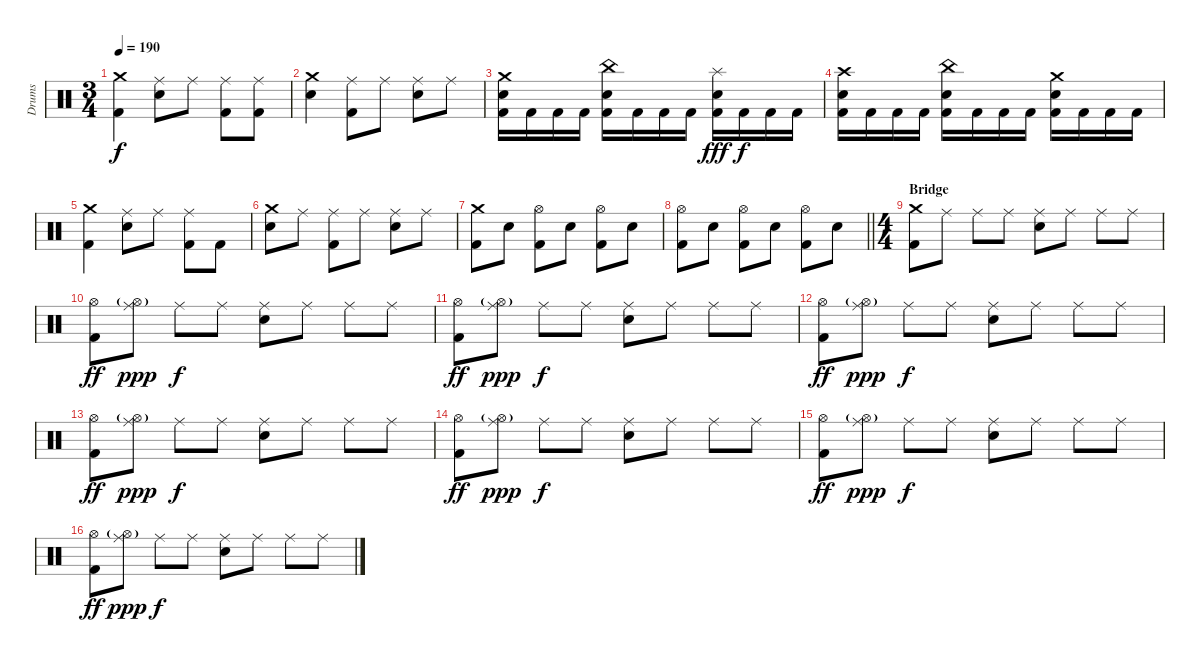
\track ("Drums" "Drums") {instrument percussion}
\staff {score}
\articulation defaults
\ts (3 4)
\tempo 190
\clef neutral
\ks c
("Crash medium (hit)" "Kick (hit) 2").4{dy f} ("Ride (middle)" "Electric Snare (hit)").8 "Ride (middle)".8 ("Ride (middle)" "Kick (hit) 2").8 ("Ride (middle)" "Kick (hit) 2").8 |
("Crash medium (hit)" "Electric Snare (hit)").4 ("Ride (middle)" "Kick (hit) 2").8 "Ride (middle)".8 ("Ride (middle)" "Electric Snare (hit)").8 "Ride (middle)".8 |
("Crash medium (hit)" "Electric Snare (hit)" "Kick (hit) 2").16 "Kick (hit) 2".16 "Kick (hit) 2".16 "Kick (hit) 2".16 ("China (hit)" "Electric Snare (hit)" "Kick (hit) 2").16 "Kick (hit) 2".16 "Kick (hit) 2".16 "Kick (hit) 2".16 ("Splash (hit)" "Electric Snare (hit)" "Kick (hit) 2").16{dy fff} "Kick (hit) 2".16{dy f} "Kick (hit) 2".16 "Kick (hit) 2".16 |
("Crash high (hit)" "Electric Snare (hit)" "Kick (hit) 2").16 "Kick (hit) 2".16 "Kick (hit) 2".16 "Kick (hit) 2".16 ("China (hit)" "Electric Snare (hit)" "Kick (hit) 2").16 "Kick (hit) 2".16 "Kick (hit) 2".16 "Kick (hit) 2".16 ("Crash medium (hit)" "Electric Snare (hit)" "Kick (hit) 2").16 "Kick (hit) 2".16 "Kick (hit) 2".16 "Kick (hit) 2".16 |
("Crash medium (hit)" "Kick (hit) 2").4 ("Ride (middle)" "Electric Snare (hit)").8 "Ride (middle)".8 ("Ride (middle)" "Kick (hit) 2").8 "Kick (hit) 2".8 |
("Crash medium (hit)" "Electric Snare (hit)").8 "Ride (middle)".8 ("Ride (middle)" "Kick (hit) 2").8 "Ride (middle)".8 ("Ride (middle)" "Electric Snare (hit)").8 "Ride (middle)".8 |
("Crash medium (hit)" "Kick (hit) 2").8 "Electric Snare (hit)".8 ("Hi-Hat (open)" "Kick (hit) 2").8 "Electric Snare (hit)".8 ("Hi-Hat (open)" "Kick (hit) 2").8 "Electric Snare (hit)".8 |
\barLineRight lightlight
("Hi-Hat (open)" "Kick (hit) 2").8 "Electric Snare (hit)".8 ("Hi-Hat (open)" "Kick (hit) 2").8 "Electric Snare (hit)".8 ("Hi-Hat (open)" "Kick (hit) 2").8 "Electric Snare (hit)".8 |
\ts (4 4)
\section ("" "Bridge")
("Crash medium (hit)" "Kick (hit) 2").8 "Ride (middle)".8 "Ride (middle)".8 "Ride (middle)".8 ("Ride (middle)" "Electric Snare (hit)").8 "Ride (middle)".8 "Ride (middle)".8 "Ride (middle)".8 |
("Hi-Hat (open)" "Kick (hit) 2").8{dy ff} ("Hi-Hat (open)"{g} "Ride (middle)").8{dy ppp} "Ride (middle)".8{dy f} "Ride (middle)".8 ("Ride (middle)" "Electric Snare (hit)").8 "Ride (middle)".8 "Ride (middle)".8 "Ride (middle)".8 |
("Hi-Hat (open)" "Kick (hit) 2").8{dy ff} ("Hi-Hat (open)"{g} "Ride (middle)").8{dy ppp} "Ride (middle)".8{dy f} "Ride (middle)".8 ("Ride (middle)" "Electric Snare (hit)").8 "Ride (middle)".8 "Ride (middle)".8 "Ride (middle)".8 |
("Hi-Hat (open)" "Kick (hit) 2").8{dy ff} ("Hi-Hat (open)"{g} "Ride (middle)").8{dy ppp} "Ride (middle)".8{dy f} "Ride (middle)".8 ("Ride (middle)" "Electric Snare (hit)").8 "Ride (middle)".8 "Ride (middle)".8 "Ride (middle)".8 |
("Hi-Hat (open)" "Kick (hit) 2").8{dy ff} ("Hi-Hat (open)"{g} "Ride (middle)").8{dy ppp} "Ride (middle)".8{dy f} "Ride (middle)".8 ("Ride (middle)" "Electric Snare (hit)").8 "Ride (middle)".8 "Ride (middle)".8 "Ride (middle)".8 |
("Hi-Hat (open)" "Kick (hit) 2").8{dy ff} ("Hi-Hat (open)"{g} "Ride (middle)").8{dy ppp} "Ride (middle)".8{dy f} "Ride (middle)".8 ("Ride (middle)" "Electric Snare (hit)").8 "Ride (middle)".8 "Ride (middle)".8 "Ride (middle)".8 |
("Hi-Hat (open)" "Kick (hit) 2").8{dy ff} ("Hi-Hat (open)"{g} "Ride (middle)").8{dy ppp} "Ride (middle)".8{dy f} "Ride (middle)".8 ("Ride (middle)" "Electric Snare (hit)").8 "Ride (middle)".8 "Ride (middle)".8 "Ride (middle)".8 |
("Hi-Hat (open)" "Kick (hit) 2").8{dy ff} ("Hi-Hat (open)"{g} "Ride (middle)").8{dy ppp} "Ride (middle)".8{dy f} "Ride (middle)".8 ("Ride (middle)" "Electric Snare (hit)").8 "Ride (middle)".8 "Ride (middle)".8 "Ride (middle)".8
